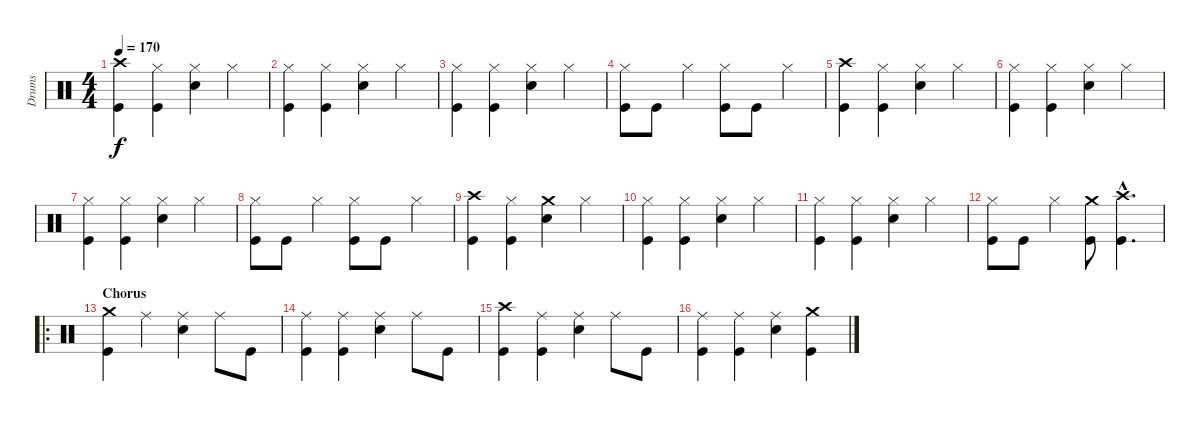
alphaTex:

\track ("Drums" "Drums") {instrument percussion}
\staff {score}
\articulation defaults
\ts (4 4)
\tempo 170
\clef neutral
\ks c
("Crash high (hit)" "Kick (hit)").4{dy f} ("Hi-Hat (closed)" "Kick (hit)").4 ("Hi-Hat (closed)" "Snare (hit) 2").4 "Hi-Hat (closed)".4 |
("Hi-Hat (closed)" "Kick (hit)").4 ("Hi-Hat (closed)" "Kick (hit)").4 ("Hi-Hat (closed)" "Snare (hit) 2").4 "Hi-Hat (closed)".4 |
("Hi-Hat (closed)" "Kick (hit)").4 ("Hi-Hat (closed)" "Kick (hit)").4 ("Hi-Hat (closed)" "Snare (hit) 2").4 "Hi-Hat (closed)".4 |
("Hi-Hat (closed)" "Kick (hit)").8 "Kick (hit)".8 "Hi-Hat (closed)".4 ("Hi-Hat (closed)" "Kick (hit)").8 "Kick (hit)".8 "Hi-Hat (closed)".4 |
("Crash high (hit)" "Kick (hit)").4 ("Hi-Hat (closed)" "Kick (hit)").4 ("Hi-Hat (closed)" "Snare (hit) 2").4 "Hi-Hat (closed)".4 |
("Hi-Hat (closed)" "Kick (hit)").4 ("Hi-Hat (closed)" "Kick (hit)").4 ("Hi-Hat (closed)" "Snare (hit) 2").4 "Hi-Hat (closed)".4 |
("Hi-Hat (closed)" "Kick (hit)").4 ("Hi-Hat (closed)" "Kick (hit)").4 ("Hi-Hat (closed)" "Snare (hit) 2").4 "Hi-Hat (closed)".4 |
("Hi-Hat (closed)" "Kick (hit)").8 "Kick (hit)".8 "Hi-Hat (closed)".4 ("Hi-Hat (closed)" "Kick (hit)").8 "Kick (hit)".8 "Hi-Hat (closed)".4 |
("Crash high (hit)" "Kick (hit)").4 ("Hi-Hat (closed)" "Kick (hit)").4 ("Crash medium (hit)" "Snare (hit) 2").4 "Hi-Hat (closed)".4 |
("Hi-Hat (closed)" "Kick (hit)").4 ("Hi-Hat (closed)" "Kick (hit)").4 ("Hi-Hat (closed)" "Snare (hit) 2").4 "Hi-Hat (closed)".4 |
("Hi-Hat (closed)" "Kick (hit)").4 ("Hi-Hat (closed)" "Kick (hit)").4 ("Hi-Hat (closed)" "Snare (hit) 2").4 "Hi-Hat (closed)".4 |
("Hi-Hat (closed)" "Kick (hit)").8 "Kick (hit)".8 "Hi-Hat (closed)".4 ("Crash medium (hit)" "Kick (hit)").8 ("Crash high (hit)"{hac} "Kick (hit)"{hac}).4{d} |
\ro
\section ("" "Chorus")
("Crash medium (hit)" "Kick (hit)").4 "Ride (middle)".4 ("Ride (middle)" "Snare (hit) 2").4 "Ride (middle)".8 "Kick (hit)".8 |
("Ride (middle)" "Kick (hit)").4 ("Ride (middle)" "Kick (hit)").4 ("Ride (middle)" "Snare (hit) 2").4 "Ride (middle)".8 "Kick (hit)".8 |
("Crash high (hit)" "Kick (hit)").4 ("Ride (middle)" "Kick (hit)").4 ("Ride (middle)" "Snare (hit) 2").4 "Ride (middle)".8 "Kick (hit)".8 |
("Ride (middle)" "Kick (hit)").4 ("Ride (middle)" "Kick (hit)").4 ("Ride (middle)" "Snare (hit) 2").4 ("Crash medium (hit)" "Kick (hit)").4
